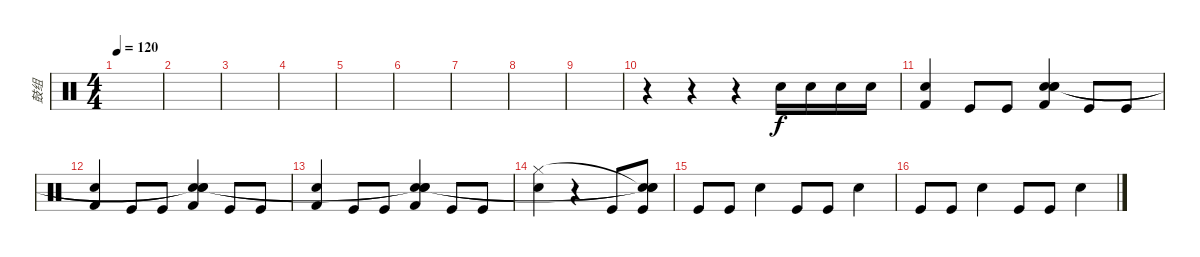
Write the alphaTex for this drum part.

\track ("鼓组" "鼓组") {instrument percussion}
\staff {score}
\articulation defaults
\ts (4 4)
\tempo 120
\clef neutral
\ks c
|
|
|
|
|
|
|
|
|
r.4 r.4 r.4 "Snare (hit) 2".16 "Snare (hit) 2".16 "Snare (hit) 2".16 "Snare (hit) 2".16 |
("Snare (hit) 2" "Kick (hit) 2").4 "Kick (hit)".8 "Kick (hit)".8 ("Snare (hit) 2" "Kick (hit) 2" "Snare (hit)" "Snare (hit)").4 "Kick (hit)".8 "Kick (hit)".8 |
("Snare (hit) 2" "Kick (hit) 2").4 "Kick (hit)".8 "Kick (hit)".8 ("Snare (hit) 2" "Kick (hit) 2" "Snare (hit)"{t} "Snare (hit)"{t}).4 "Kick (hit)".8 "Kick (hit)".8 |
("Snare (hit) 2" "Kick (hit) 2").4 "Kick (hit)".8 "Kick (hit)".8 ("Snare (hit) 2" "Kick (hit) 2" "Snare (hit)"{t} "Snare (hit)"{t}).4 "Kick (hit)".8 "Kick (hit)".8 |
("Snare (hit) 2" "Hi-Hat (closed)").4 r.4 "Kick (hit)".8 ("Kick (hit)" "Snare (hit)"{t} "Snare (hit)"{t} "Snare (hit)"{t}).8 |
"Kick (hit)".8 "Kick (hit)".8 "Snare (hit) 2".4 "Kick (hit)".8 "Kick (hit)".8 "Snare (hit) 2".4 |
"Kick (hit)".8 "Kick (hit)".8 "Snare (hit) 2".4 "Kick (hit)".8 "Kick (hit)".8 "Snare (hit) 2".4
